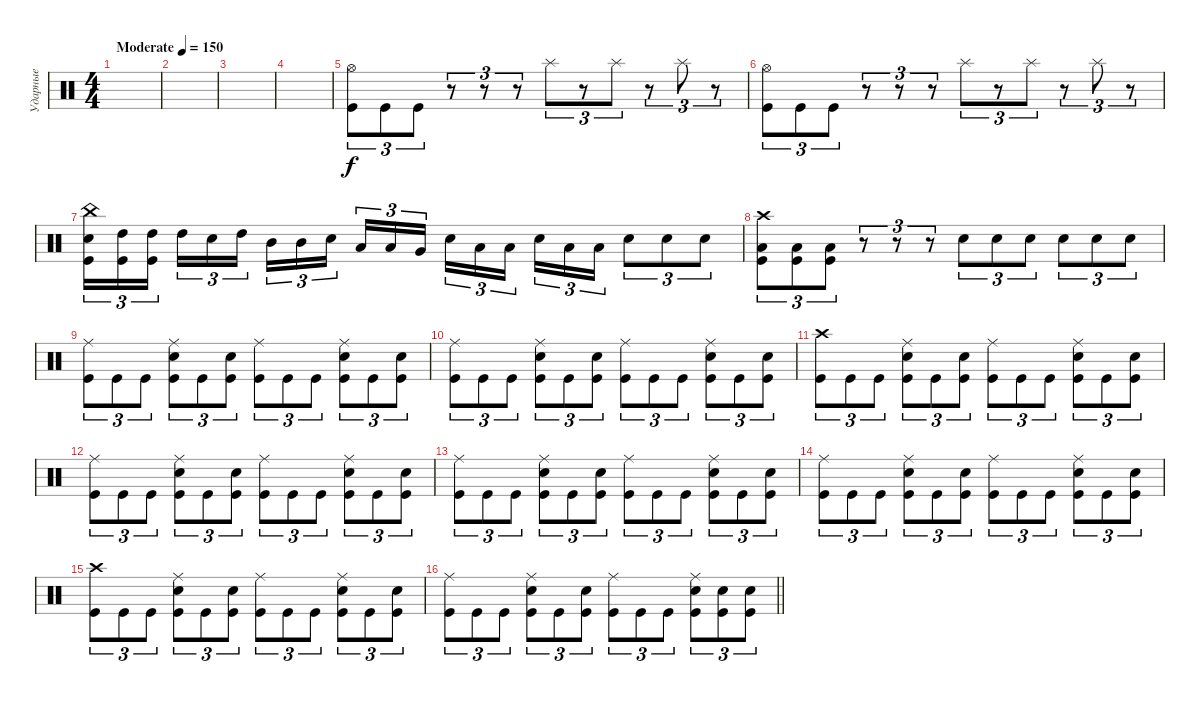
\track ("Ударные" "Ударные") {instrument percussion}
\staff {score}
\articulation defaults
\ts (4 4)
\tempo (150 "Moderate")
\clef neutral
\ks c
|
|
|
|
("Kick (hit)" "Hi-Hat (open)").8{tu (3 2)} "Kick (hit)".8{tu (3 2)} "Kick (hit)".8{tu (3 2)} r.8{tu (3 2)} r.8{tu (3 2)} r.8{tu (3 2)} "Splash (hit)".8{tu (3 2)} r.8{tu (3 2)} "Splash (hit)".8{tu (3 2)} r.8{tu (3 2)} "Splash (hit)".8{tu (3 2)} r.8{tu (3 2)} |
("Kick (hit)" "Hi-Hat (open)").8{tu (3 2)} "Kick (hit)".8{tu (3 2)} "Kick (hit)".8{tu (3 2)} r.8{tu (3 2)} r.8{tu (3 2)} r.8{tu (3 2)} "Splash (hit)".8{tu (3 2)} r.8{tu (3 2)} "Splash (hit)".8{tu (3 2)} r.8{tu (3 2)} "Splash (hit)".8{tu (3 2)} r.8{tu (3 2)} |
("Kick (hit)" "Electric Snare (hit)" "China (hit)").16{tu (3 2)} ("Kick (hit)" "High Tom (hit)").16{tu (3 2)} ("Kick (hit)" "High Tom (hit)").16{tu (3 2) beam splitsecondary} "High Tom (hit)".16{tu (3 2)} "Electric Snare (hit)".16{tu (3 2)} "High Tom (hit)".16{tu (3 2)} "Mid Tom (hit)".16{tu (3 2)} "Mid Tom (hit)".16{tu (3 2)} "Electric Snare (hit)".16{tu (3 2) beam splitsecondary} "Low Tom (hit)".16{tu (3 2)} "Low Tom (hit)".16{tu (3 2)} "Very Low Tom (hit)".16{tu (3 2)} "Electric Snare (hit)".16{tu (3 2)} "Low Floor Tom (hit)".16{tu (3 2)} "Low Floor Tom (hit)".16{tu (3 2) beam splitsecondary} "Electric Snare (hit)".16{tu (3 2)} "Low Floor Tom (hit)".16{tu (3 2)} "Low Floor Tom (hit)".16{tu (3 2)} "Electric Snare (hit)".8{tu (3 2)} "Electric Snare (hit)".8{tu (3 2)} "Electric Snare (hit)".8{tu (3 2)} |
("Kick (hit)" "Low Floor Tom (hit)" "Crash high (hit)").8{tu (3 2)} ("Kick (hit)" "Low Floor Tom (hit)").8{tu (3 2)} ("Kick (hit)" "Low Floor Tom (hit)").8{tu (3 2)} r.8{tu (3 2)} r.8{tu (3 2)} r.8{tu (3 2)} "Electric Snare (hit)".8{tu (3 2)} "Electric Snare (hit)".8{tu (3 2)} "Electric Snare (hit)".8{tu (3 2)} "Electric Snare (hit)".8{tu (3 2)} "Electric Snare (hit)".8{tu (3 2)} "Electric Snare (hit)".8{tu (3 2)} |
("Kick (hit)" "Ride (middle)").8{tu (3 2)} "Kick (hit)".8{tu (3 2)} "Kick (hit)".8{tu (3 2)} ("Kick (hit)" "Electric Snare (hit)" "Ride (middle)").8{tu (3 2)} "Kick (hit)".8{tu (3 2)} ("Kick (hit)" "Electric Snare (hit)").8{tu (3 2)} ("Kick (hit)" "Ride (middle)").8{tu (3 2)} "Kick (hit)".8{tu (3 2)} "Kick (hit)".8{tu (3 2)} ("Kick (hit)" "Electric Snare (hit)" "Ride (middle)").8{tu (3 2)} "Kick (hit)".8{tu (3 2)} ("Kick (hit)" "Electric Snare (hit)").8{tu (3 2)} |
("Kick (hit)" "Ride (middle)").8{tu (3 2)} "Kick (hit)".8{tu (3 2)} "Kick (hit)".8{tu (3 2)} ("Kick (hit)" "Electric Snare (hit)" "Ride (middle)").8{tu (3 2)} "Kick (hit)".8{tu (3 2)} ("Kick (hit)" "Electric Snare (hit)").8{tu (3 2)} ("Kick (hit)" "Ride (middle)").8{tu (3 2)} "Kick (hit)".8{tu (3 2)} "Kick (hit)".8{tu (3 2)} ("Kick (hit)" "Electric Snare (hit)" "Ride (middle)").8{tu (3 2)} "Kick (hit)".8{tu (3 2)} ("Kick (hit)" "Electric Snare (hit)").8{tu (3 2)} |
("Kick (hit)" "Crash high (hit)").8{tu (3 2)} "Kick (hit)".8{tu (3 2)} "Kick (hit)".8{tu (3 2)} ("Kick (hit)" "Electric Snare (hit)" "Ride (middle)").8{tu (3 2)} "Kick (hit)".8{tu (3 2)} ("Kick (hit)" "Electric Snare (hit)").8{tu (3 2)} ("Kick (hit)" "Ride (middle)").8{tu (3 2)} "Kick (hit)".8{tu (3 2)} "Kick (hit)".8{tu (3 2)} ("Kick (hit)" "Electric Snare (hit)" "Ride (middle)").8{tu (3 2)} "Kick (hit)".8{tu (3 2)} ("Kick (hit)" "Electric Snare (hit)").8{tu (3 2)} |
("Kick (hit)" "Ride (middle)").8{tu (3 2)} "Kick (hit)".8{tu (3 2)} "Kick (hit)".8{tu (3 2)} ("Kick (hit)" "Electric Snare (hit)" "Ride (middle)").8{tu (3 2)} "Kick (hit)".8{tu (3 2)} ("Kick (hit)" "Electric Snare (hit)").8{tu (3 2)} ("Kick (hit)" "Ride (middle)").8{tu (3 2)} "Kick (hit)".8{tu (3 2)} "Kick (hit)".8{tu (3 2)} ("Kick (hit)" "Electric Snare (hit)" "Ride (middle)").8{tu (3 2)} "Kick (hit)".8{tu (3 2)} ("Kick (hit)" "Electric Snare (hit)").8{tu (3 2)} |
("Kick (hit)" "Ride (middle)").8{tu (3 2)} "Kick (hit)".8{tu (3 2)} "Kick (hit)".8{tu (3 2)} ("Kick (hit)" "Electric Snare (hit)" "Ride (middle)").8{tu (3 2)} "Kick (hit)".8{tu (3 2)} ("Kick (hit)" "Electric Snare (hit)").8{tu (3 2)} ("Kick (hit)" "Ride (middle)").8{tu (3 2)} "Kick (hit)".8{tu (3 2)} "Kick (hit)".8{tu (3 2)} ("Kick (hit)" "Electric Snare (hit)" "Ride (middle)").8{tu (3 2)} "Kick (hit)".8{tu (3 2)} ("Kick (hit)" "Electric Snare (hit)").8{tu (3 2)} |
("Kick (hit)" "Ride (middle)").8{tu (3 2)} "Kick (hit)".8{tu (3 2)} "Kick (hit)".8{tu (3 2)} ("Kick (hit)" "Electric Snare (hit)" "Ride (middle)").8{tu (3 2)} "Kick (hit)".8{tu (3 2)} ("Kick (hit)" "Electric Snare (hit)").8{tu (3 2)} ("Kick (hit)" "Ride (middle)").8{tu (3 2)} "Kick (hit)".8{tu (3 2)} "Kick (hit)".8{tu (3 2)} ("Kick (hit)" "Electric Snare (hit)" "Ride (middle)").8{tu (3 2)} "Kick (hit)".8{tu (3 2)} ("Kick (hit)" "Electric Snare (hit)").8{tu (3 2)} |
("Kick (hit)" "Crash high (hit)").8{tu (3 2)} "Kick (hit)".8{tu (3 2)} "Kick (hit)".8{tu (3 2)} ("Kick (hit)" "Electric Snare (hit)" "Ride (middle)").8{tu (3 2)} "Kick (hit)".8{tu (3 2)} ("Kick (hit)" "Electric Snare (hit)").8{tu (3 2)} ("Kick (hit)" "Ride (middle)").8{tu (3 2)} "Kick (hit)".8{tu (3 2)} "Kick (hit)".8{tu (3 2)} ("Kick (hit)" "Electric Snare (hit)" "Ride (middle)").8{tu (3 2)} "Kick (hit)".8{tu (3 2)} ("Kick (hit)" "Electric Snare (hit)").8{tu (3 2)} |
\barLineRight lightlight
("Kick (hit)" "Ride (middle)").8{tu (3 2)} "Kick (hit)".8{tu (3 2)} "Kick (hit)".8{tu (3 2)} ("Kick (hit)" "Electric Snare (hit)" "Ride (middle)").8{tu (3 2)} "Kick (hit)".8{tu (3 2)} ("Kick (hit)" "Electric Snare (hit)").8{tu (3 2)} ("Kick (hit)" "Ride (middle)").8{tu (3 2)} "Kick (hit)".8{tu (3 2)} "Kick (hit)".8{tu (3 2)} ("Kick (hit)" "Electric Snare (hit)" "Ride (middle)").8{tu (3 2)} ("Kick (hit)" "Electric Snare (hit)").8{tu (3 2)} ("Kick (hit)" "Electric Snare (hit)").8{tu (3 2)}
